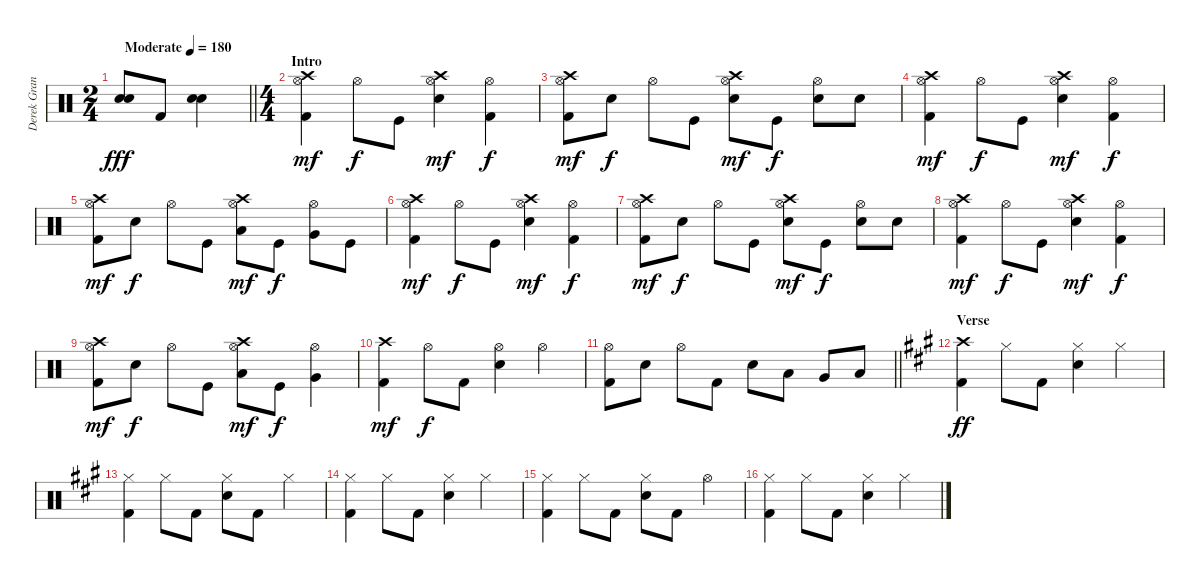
\track ("Derek Grant - Drums" "Derek Gran") {instrument percussion}
\staff {score}
\articulation defaults
\ts (2 4)
\tempo (180 "Moderate")
\clef neutral
\barLineRight lightlight
\ks c
("Snare (hit) 2" "Snare (hit) 2").8{dy fff} "Kick (hit) 2".8 ("Snare (hit) 2" "Snare (hit) 2").4 |
\ts (4 4)
\section ("" "Intro")
("Crash high (hit)" "Kick (hit) 2" "Hi-Hat (open)").4{dy mf} "Hi-Hat (open)".8{dy f} "Kick (hit)".8 ("Snare (hit) 2" "Crash high (hit)" "Hi-Hat (open)").4{dy mf} ("Kick (hit) 2" "Hi-Hat (open)").4{dy f} |
("Crash high (hit)" "Kick (hit) 2" "Hi-Hat (open)").8{dy mf} "Snare (hit) 2".8{dy f} "Hi-Hat (open)".8 "Kick (hit)".8 ("Snare (hit) 2" "Crash high (hit)" "Hi-Hat (open)").8{dy mf} "Kick (hit)".8{dy f} ("Snare (hit) 2" "Hi-Hat (open)").8 "Snare (hit) 2".8 |
("Crash high (hit)" "Kick (hit) 2" "Hi-Hat (open)").4{dy mf} "Hi-Hat (open)".8{dy f} "Kick (hit)".8 ("Snare (hit) 2" "Crash high (hit)" "Hi-Hat (open)").4{dy mf} ("Kick (hit) 2" "Hi-Hat (open)").4{dy f} |
("Crash high (hit)" "Kick (hit) 2" "Hi-Hat (open)").8{dy mf} "Snare (hit) 2".8{dy f} "Hi-Hat (open)".8 "Kick (hit)".8 ("Low Tom (hit)" "Crash high (hit)" "Hi-Hat (open)").8{dy mf} "Kick (hit)".8{dy f} ("Very Low Tom (hit)" "Hi-Hat (open)").8 "Kick (hit)".8 |
("Crash high (hit)" "Kick (hit) 2" "Hi-Hat (open)").4{dy mf} "Hi-Hat (open)".8{dy f} "Kick (hit)".8 ("Snare (hit) 2" "Crash high (hit)" "Hi-Hat (open)").4{dy mf} ("Kick (hit) 2" "Hi-Hat (open)").4{dy f} |
("Crash high (hit)" "Kick (hit) 2" "Hi-Hat (open)").8{dy mf} "Snare (hit) 2".8{dy f} "Hi-Hat (open)".8 "Kick (hit)".8 ("Snare (hit) 2" "Crash high (hit)" "Hi-Hat (open)").8{dy mf} "Kick (hit)".8{dy f} ("Snare (hit) 2" "Hi-Hat (open)").8 "Snare (hit) 2".8 |
("Crash high (hit)" "Kick (hit) 2" "Hi-Hat (open)").4{dy mf} "Hi-Hat (open)".8{dy f} "Kick (hit)".8 ("Snare (hit) 2" "Crash high (hit)" "Hi-Hat (open)").4{dy mf} ("Kick (hit) 2" "Hi-Hat (open)").4{dy f} |
("Crash high (hit)" "Kick (hit) 2" "Hi-Hat (open)").8{dy mf} "Snare (hit) 2".8{dy f} "Hi-Hat (open)".8 "Kick (hit)".8 ("Low Tom (hit)" "Crash high (hit)" "Hi-Hat (open)").8{dy mf} "Kick (hit)".8{dy f} ("Very Low Tom (hit)" "Hi-Hat (open)").4 |
("Crash high (hit)" "Kick (hit) 2").4{dy mf} "Hi-Hat (open)".8{dy f} "Kick (hit) 2".8 ("Snare (hit) 2" "Hi-Hat (open)").4 "Hi-Hat (open)".4 |
\barLineRight lightlight
("Kick (hit) 2" "Hi-Hat (open)").8 "Snare (hit) 2".8 "Hi-Hat (open)".8 "Kick (hit) 2".8 "Snare (hit) 2".8 "Low Tom (hit)".8 "Very Low Tom (hit)".8 "Low Floor Tom (hit)".8 |
\section ("" "Verse")
\ks a
("Crash high (hit)" "Kick (hit) 2").4{dy ff} "Hi-Hat (closed)".8 "Kick (hit) 2".8 ("Snare (hit) 2" "Hi-Hat (closed)").4 "Hi-Hat (closed)".4 |
("Hi-Hat (closed)" "Kick (hit) 2").4 "Hi-Hat (closed)".8 "Kick (hit) 2".8 ("Snare (hit) 2" "Hi-Hat (closed)").8 "Kick (hit) 2".8 "Hi-Hat (closed)".4 |
("Hi-Hat (closed)" "Kick (hit) 2").4 "Hi-Hat (closed)".8 "Kick (hit) 2".8 ("Snare (hit) 2" "Hi-Hat (closed)").4 "Hi-Hat (closed)".4 |
("Hi-Hat (closed)" "Kick (hit) 2").4 "Hi-Hat (closed)".8 "Kick (hit) 2".8 ("Snare (hit) 2" "Hi-Hat (closed)").8 "Kick (hit) 2".8 "Hi-Hat (open)".4 |
("Hi-Hat (closed)" "Kick (hit) 2").4 "Hi-Hat (closed)".8 "Kick (hit) 2".8 ("Snare (hit) 2" "Hi-Hat (closed)").4 "Hi-Hat (closed)".4
